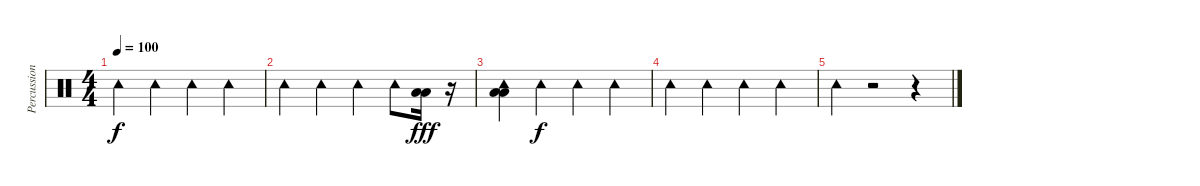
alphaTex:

\track ("Percussion" "Percussion") {instrument percussion}
\staff {score}
\articulation defaults
\ts (4 4)
\tempo 100
\clef neutral
\ks c "Tambourine (hit)".4{dy f} "Tambourine (hit)".4 "Tambourine (hit)".4 "Tambourine (hit)".4
|
"Tambourine (hit)".4 "Tambourine (hit)".4 "Tambourine (hit)".4 "Tambourine (hit)".8 ("Low Floor Tom (hit)" "Low Tom (hit)").16{dy fff} r.16 |
("Tambourine (hit)" "Low Floor Tom (hit)" "Low Tom (hit)").4 "Tambourine (hit)".4{dy f} "Tambourine (hit)".4 "Tambourine (hit)".4 |
"Tambourine (hit)".4 "Tambourine (hit)".4 "Tambourine (hit)".4 "Tambourine (hit)".4 |
"Tambourine (hit)".4 r.2 r.4
